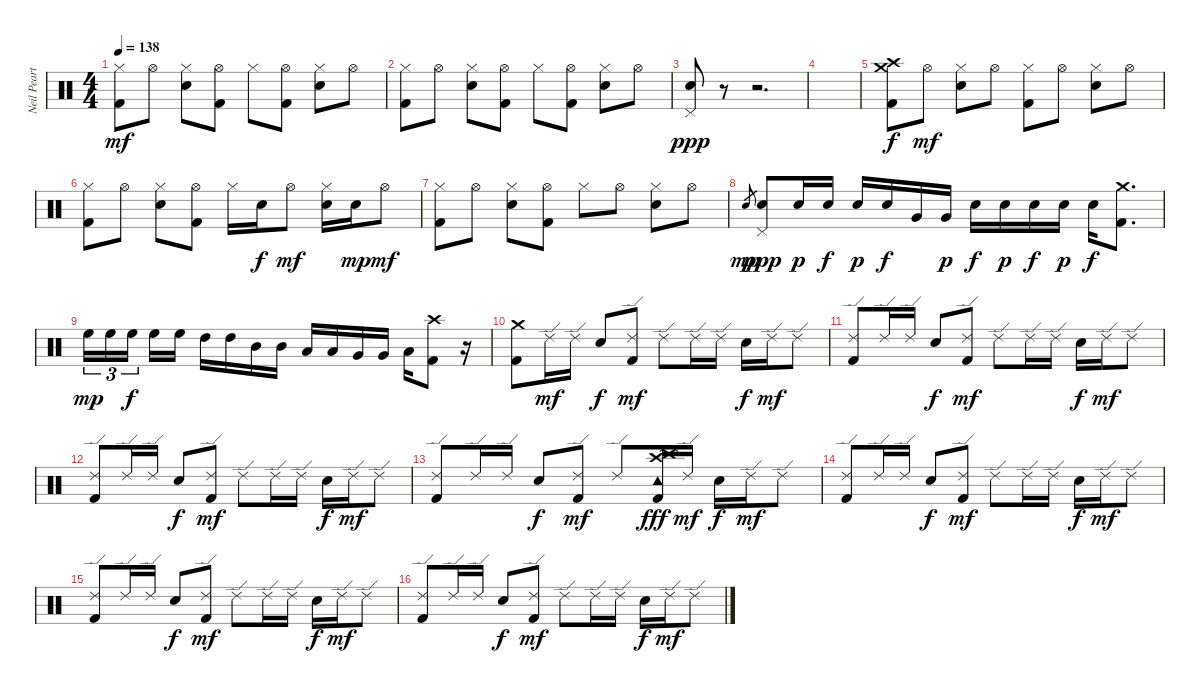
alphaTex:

\track ("Neil Peart, Percusión" "Neil Peart") {instrument percussion}
\staff {score}
\articulation defaults
\ts (4 4)
\tempo 138
\clef neutral
\ks c
("Hi-Hat (closed)" "Kick (hit) 2").8{dy mf} "Hi-Hat (open)".8 ("Hi-Hat (closed)" "Electric Snare (hit)").8 ("Hi-Hat (open)" "Kick (hit) 2").8 "Hi-Hat (closed)".8 ("Hi-Hat (open)" "Kick (hit) 2").8 ("Hi-Hat (closed)" "Electric Snare (hit)").8 "Hi-Hat (open)".8 |
("Hi-Hat (closed)" "Kick (hit) 2").8 "Hi-Hat (open)".8 ("Hi-Hat (closed)" "Electric Snare (hit)").8 ("Hi-Hat (open)" "Kick (hit) 2").8 "Hi-Hat (closed)".8 ("Hi-Hat (open)" "Kick (hit) 2").8 ("Hi-Hat (closed)" "Electric Snare (hit)").8 "Hi-Hat (open)".8 |
("Pedal Hi-Hat (hit)" "Electric Snare (hit)").8{dy ppp} r.8 r.2{d} |
|
("Crash medium (hit)" "Crash high (hit)" "Kick (hit) 2").8{dy f} "Hi-Hat (open)".8{dy mf} ("Hi-Hat (closed)" "Electric Snare (hit)").8 "Hi-Hat (open)".8 ("Hi-Hat (closed)" "Kick (hit) 2").8 "Hi-Hat (open)".8 ("Hi-Hat (closed)" "Electric Snare (hit)").8 "Hi-Hat (open)".8 |
("Hi-Hat (closed)" "Kick (hit) 2").8 "Hi-Hat (open)".8 ("Hi-Hat (closed)" "Electric Snare (hit)").8 ("Hi-Hat (open)" "Kick (hit) 2").8 "Hi-Hat (closed)".16 "Electric Snare (hit)".16{dy f} "Hi-Hat (open)".8{dy mf} ("Hi-Hat (closed)" "Electric Snare (hit)").16 "Electric Snare (hit)".16{dy mp} "Hi-Hat (open)".8{dy mf} |
("Hi-Hat (closed)" "Kick (hit) 2").8 "Hi-Hat (open)".8 ("Hi-Hat (closed)" "Electric Snare (hit)").8 ("Hi-Hat (open)" "Kick (hit) 2").8 "Hi-Hat (closed)".8 "Hi-Hat (open)".8 ("Hi-Hat (closed)" "Electric Snare (hit)").8 "Hi-Hat (open)".8 |
"Electric Snare (hit)".8{gr dy mp} ("Pedal Hi-Hat (hit)" "Electric Snare (hit)").8{dy ppp} "Electric Snare (hit)".16{dy p} "Electric Snare (hit)".16{dy f} "Electric Snare (hit)".16{dy p} "Electric Snare (hit)".16{dy f} "Very Low Tom (hit)".16 "Very Low Tom (hit)".16{dy p} "Electric Snare (hit)".16{dy f} "Electric Snare (hit)".16{dy p} "Electric Snare (hit)".16{dy f} "Electric Snare (hit)".16{dy p} "Electric Snare (hit)".16{dy f} ("Crash medium (hit)" "Kick (hit) 2").8{d} |
"High Floor Tom (hit)".16{tu (3 2) dy mp} "High Floor Tom (hit)".16{tu (3 2)} "High Floor Tom (hit)".16{tu (3 2) dy f} "High Floor Tom (hit)".16 "High Floor Tom (hit)".16 "High Tom (hit)".16 "High Tom (hit)".16 "Mid Tom (hit)".16 "Mid Tom (hit)".16 "Low Tom (hit)".16 "Low Tom (hit)".16 "Very Low Tom (hit)".16 "Very Low Tom (hit)".16 "Low Floor Tom (hit)".16 ("Crash high (hit)" "Kick (hit) 2").8 r.16 |
("Crash medium (hit)" "Kick (hit) 2").8 "Ride (edge) 2".16{dy mf} "Ride (edge) 2".16 "Electric Snare (hit)".8{dy f} ("Ride (edge) 2" "Kick (hit) 2").8{dy mf} "Ride (edge) 2".8 "Ride (edge) 2".16 "Ride (edge) 2".16 "Electric Snare (hit)".16{dy f} "Ride (edge) 2".16{dy mf} "Ride (edge) 2".8 |
("Ride (edge) 2" "Kick (hit) 2").8 "Ride (edge) 2".16 "Ride (edge) 2".16 "Electric Snare (hit)".8{dy f} ("Ride (edge) 2" "Kick (hit) 2").8{dy mf} "Ride (edge) 2".8 "Ride (edge) 2".16 "Ride (edge) 2".16 "Electric Snare (hit)".16{dy f} "Ride (edge) 2".16{dy mf} "Ride (edge) 2".8 |
("Ride (edge) 2" "Kick (hit) 2").8 "Ride (edge) 2".16 "Ride (edge) 2".16 "Electric Snare (hit)".8{dy f} ("Ride (edge) 2" "Kick (hit) 2").8{dy mf} "Ride (edge) 2".8 "Ride (edge) 2".16 "Ride (edge) 2".16 "Electric Snare (hit)".16{dy f} "Ride (edge) 2".16{dy mf} "Ride (edge) 2".8 |
("Ride (edge) 2" "Kick (hit) 2").8 "Ride (edge) 2".16 "Ride (edge) 2".16 "Electric Snare (hit)".8{dy f} ("Ride (edge) 2" "Kick (hit) 2").8{dy mf} "Ride (edge) 2".8 ("Crash high (hit)" "China (hit)" "Tambourine (hit)" "Kick (hit) 2").16{dy fff} "Ride (edge) 2".16{dy mf} "Electric Snare (hit)".16{dy f} "Ride (edge) 2".16{dy mf} "Ride (edge) 2".8 |
("Ride (edge) 2" "Kick (hit) 2").8 "Ride (edge) 2".16 "Ride (edge) 2".16 "Electric Snare (hit)".8{dy f} ("Ride (edge) 2" "Kick (hit) 2").8{dy mf} "Ride (edge) 2".8 "Ride (edge) 2".16 "Ride (edge) 2".16 "Electric Snare (hit)".16{dy f} "Ride (edge) 2".16{dy mf} "Ride (edge) 2".8 |
("Ride (edge) 2" "Kick (hit) 2").8 "Ride (edge) 2".16 "Ride (edge) 2".16 "Electric Snare (hit)".8{dy f} ("Ride (edge) 2" "Kick (hit) 2").8{dy mf} "Ride (edge) 2".8 "Ride (edge) 2".16 "Ride (edge) 2".16 "Electric Snare (hit)".16{dy f} "Ride (edge) 2".16{dy mf} "Ride (edge) 2".8 |
("Ride (edge) 2" "Kick (hit) 2").8 "Ride (edge) 2".16 "Ride (edge) 2".16 "Electric Snare (hit)".8{dy f} ("Ride (edge) 2" "Kick (hit) 2").8{dy mf} "Ride (edge) 2".8 "Ride (edge) 2".16 "Ride (edge) 2".16 "Electric Snare (hit)".16{dy f} "Ride (edge) 2".16{dy mf} "Ride (edge) 2".8
